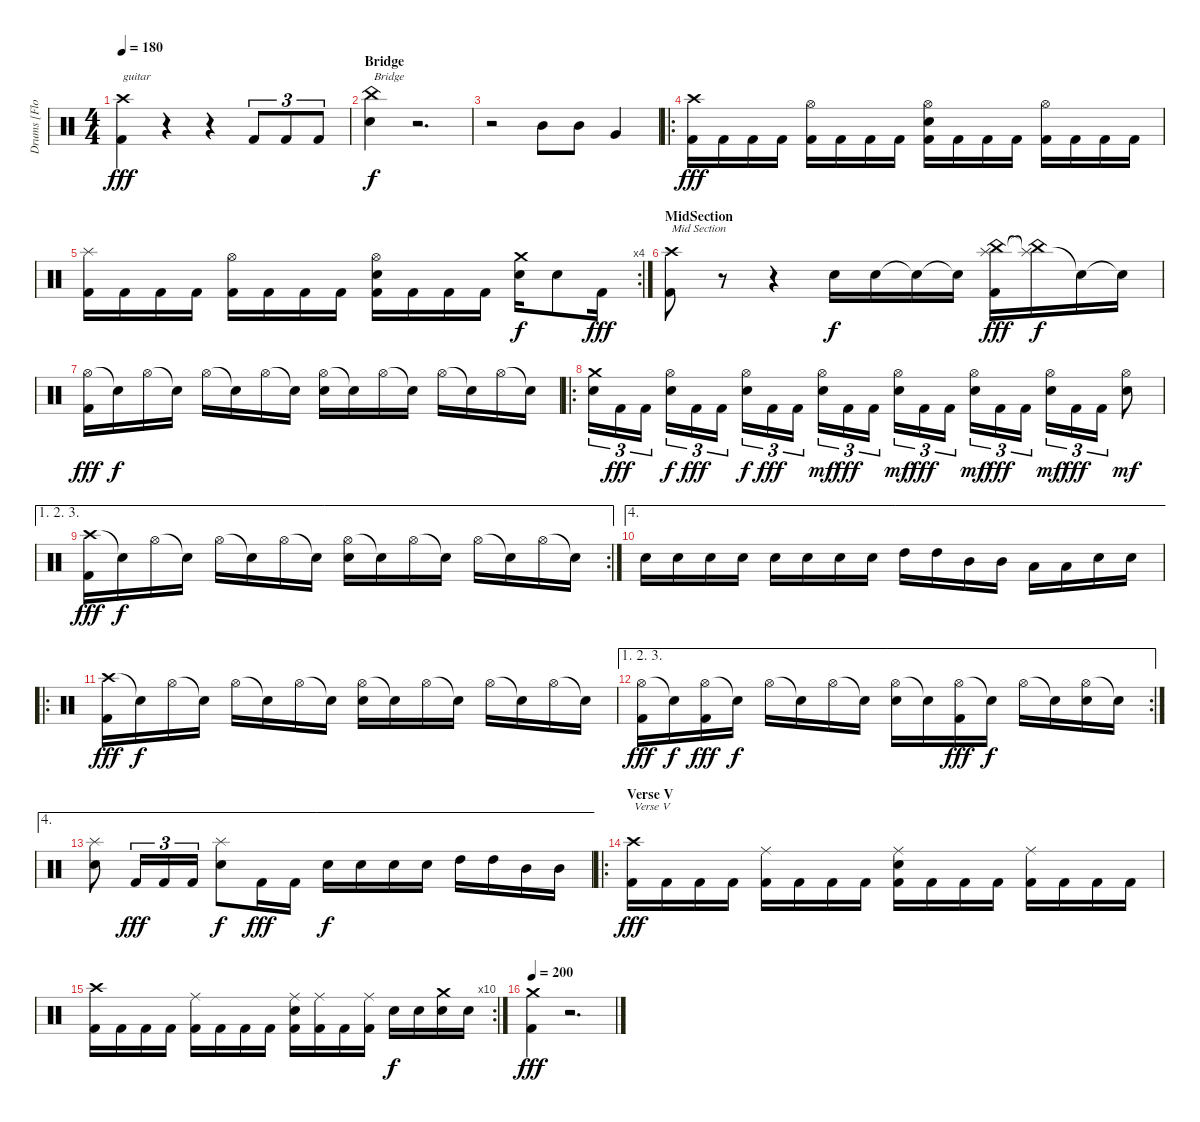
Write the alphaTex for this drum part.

\track ("Drums [Flo Mounier]" "Drums [Flo") {instrument percussion}
\staff {score}
\articulation defaults
\ts (4 4)
\tempo 180
\clef neutral
\ks c
("Crash high (hit)" "Kick (hit) 2").4{txt "guitar" dy fff} r.4 r.4 "Kick (hit) 2".8{tu (3 2)} "Kick (hit) 2".8{tu (3 2)} "Kick (hit) 2".8{tu (3 2)} |
\section ("" "Bridge")
("China (hit)" "Electric Snare (hit)").4{txt "Bridge" dy f} r.2{d volume 0} |
r.2 "Mid Tom (hit)".8{volume 16} "Mid Tom (hit)".8 "Very Low Tom (hit)".4 |
\ro
("Crash high (hit)" "Kick (hit) 2").16{dy fff} "Kick (hit) 2".16 "Kick (hit) 2".16 "Kick (hit) 2".16 ("Hi-Hat (open)" "Kick (hit) 2").16 "Kick (hit) 2".16 "Kick (hit) 2".16 "Kick (hit) 2".16 ("Hi-Hat (open)" "Electric Snare (hit)" "Kick (hit) 2").16 "Kick (hit) 2".16 "Kick (hit) 2".16 "Kick (hit) 2".16 ("Hi-Hat (open)" "Kick (hit) 2").16 "Kick (hit) 2".16 "Kick (hit) 2".16 "Kick (hit) 2".16 |
\rc 4
("Splash (hit)" "Kick (hit) 2").16 "Kick (hit) 2".16 "Kick (hit) 2".16 "Kick (hit) 2".16 ("Hi-Hat (open)" "Kick (hit) 2").16 "Kick (hit) 2".16 "Kick (hit) 2".16 "Kick (hit) 2".16 ("Hi-Hat (open)" "Electric Snare (hit)" "Kick (hit) 2").16 "Kick (hit) 2".16 "Kick (hit) 2".16 "Kick (hit) 2".16 ("Crash medium (hit)" "Electric Snare (hit)").16{dy f} "Electric Snare (hit)".8 "Kick (hit) 2".16{dy fff} |
\section ("" "MidSection")
("Crash high (hit)" "Kick (hit) 2").8{txt "Mid Section"} r.8{volume 0} r.4 "Electric Snare (hit)".16{dy f volume 16} "Electric Snare (hit)".16 "Snare (hit)"{t}.16 "Snare (hit)"{t}.16 ("China (hit)" "Splash (hit)" "Kick (hit) 2").16{dy fff} ("Splash (hit)"{t} "China (hit)"{t}).16{dy f} "Snare (hit)"{t}.16 "Snare (hit)"{t}.16 |
("Hi-Hat (open)" "Kick (hit) 2").16{dy fff} "Snare (hit)"{t}.16{dy f} "Hi-Hat (open)".16 "Snare (hit)"{t}.16 "Hi-Hat (open)".16 "Snare (hit)"{t}.16 "Hi-Hat (open)".16 "Snare (hit)"{t}.16 ("Hi-Hat (open)" "Electric Snare (hit)").16 "Snare (hit)"{t}.16 "Hi-Hat (open)".16 "Snare (hit)"{t}.16 "Hi-Hat (open)".16 "Snare (hit)"{t}.16 "Hi-Hat (open)".16 "Snare (hit)"{t}.16 |
\ro
("Crash medium (hit)" "Electric Snare (hit)").16{tu (3 2)} "Kick (hit) 2".16{tu (3 2) dy fff} "Kick (hit) 2".16{tu (3 2)} ("Hi-Hat (open)" "Electric Snare (hit)").16{tu (3 2) dy f} "Kick (hit) 2".16{tu (3 2) dy fff} "Kick (hit) 2".16{tu (3 2)} ("Hi-Hat (open)" "Electric Snare (hit)").16{tu (3 2) dy f} "Kick (hit) 2".16{tu (3 2) dy fff} "Kick (hit) 2".16{tu (3 2)} ("Hi-Hat (open)" "Electric Snare (hit)").16{tu (3 2) dy mf} "Kick (hit) 2".16{tu (3 2) dy fff} "Kick (hit) 2".16{tu (3 2)} ("Hi-Hat (open)" "Electric Snare (hit)").16{tu (3 2) dy mf} "Kick (hit) 2".16{tu (3 2) dy fff} "Kick (hit) 2".16{tu (3 2)} ("Hi-Hat (open)" "Electric Snare (hit)").16{tu (3 2) dy mf} "Kick (hit) 2".16{tu (3 2) dy fff} "Kick (hit) 2".16{tu (3 2)} ("Hi-Hat (open)" "Electric Snare (hit)").16{tu (3 2) dy mf} "Kick (hit) 2".16{tu (3 2) dy fff} "Kick (hit) 2".16{tu (3 2)} ("Hi-Hat (open)" "Electric Snare (hit)").8{dy mf} |
\ae (1 2 3)
\rc 2
("Crash high (hit)" "Kick (hit) 2").16{dy fff} "Snare (hit)"{t}.16{dy f} "Hi-Hat (open)".16 "Snare (hit)"{t}.16 "Hi-Hat (open)".16 "Snare (hit)"{t}.16 "Hi-Hat (open)".16 "Snare (hit)"{t}.16 ("Hi-Hat (open)" "Electric Snare (hit)").16 "Snare (hit)"{t}.16 "Hi-Hat (open)".16 "Snare (hit)"{t}.16 "Hi-Hat (open)".16 "Snare (hit)"{t}.16 "Hi-Hat (open)".16 "Snare (hit)"{t}.16 |
\ae 4 "Electric Snare (hit)".16 "Electric Snare (hit)".16 "Electric Snare (hit)".16 "Electric Snare (hit)".16 "Electric Snare (hit)".16 "Electric Snare (hit)".16 "Electric Snare (hit)".16 "Electric Snare (hit)".16 "High Tom (hit)".16 "High Tom (hit)".16 "Mid Tom (hit)".16 "Mid Tom (hit)".16 "Low Tom (hit)".16 "Low Tom (hit)".16 "Electric Snare (hit)".16 "Electric Snare (hit)".16
|
\ro
("Crash high (hit)" "Kick (hit) 2").16{dy fff} "Snare (hit)"{t}.16{dy f} "Hi-Hat (open)".16 "Snare (hit)"{t}.16 "Hi-Hat (open)".16 "Snare (hit)"{t}.16 "Hi-Hat (open)".16 "Snare (hit)"{t}.16 ("Hi-Hat (open)" "Electric Snare (hit)").16 "Snare (hit)"{t}.16 "Hi-Hat (open)".16 "Snare (hit)"{t}.16 "Hi-Hat (open)".16 "Snare (hit)"{t}.16 "Hi-Hat (open)".16 "Snare (hit)"{t}.16 |
\ae (1 2 3)
\rc 2
("Hi-Hat (open)" "Kick (hit) 2").16{dy fff} "Snare (hit)"{t}.16{dy f} ("Hi-Hat (open)" "Kick (hit) 2").16{dy fff} "Snare (hit)"{t}.16{dy f} "Hi-Hat (open)".16 "Snare (hit)"{t}.16 "Hi-Hat (open)".16 "Snare (hit)"{t}.16 ("Hi-Hat (open)" "Electric Snare (hit)").16 "Snare (hit)"{t}.16 ("Hi-Hat (open)" "Kick (hit) 2").16{dy fff} "Snare (hit)"{t}.16{dy f} "Hi-Hat (open)".16 "Snare (hit)"{t}.16 ("Hi-Hat (open)" "Electric Snare (hit)").16 "Snare (hit)"{t}.16 |
\ae 4
("Splash (hit)" "Electric Snare (hit)").8 "Kick (hit) 2".16{tu (3 2) dy fff} "Kick (hit) 2".16{tu (3 2)} "Kick (hit) 2".16{tu (3 2)} ("Splash (hit)" "Electric Snare (hit)").8{dy f} "Kick (hit) 2".16{dy fff} "Kick (hit) 2".16 "Electric Snare (hit)".16{dy f} "Electric Snare (hit)".16 "Electric Snare (hit)".16 "Electric Snare (hit)".16 "High Tom (hit)".16 "High Tom (hit)".16 "Mid Tom (hit)".16 "Mid Tom (hit)".16 |
\ro
\section ("" "Verse V")
("Crash high (hit)" "Kick (hit) 2").16{txt "Verse V" dy fff} "Kick (hit) 2".16 "Kick (hit) 2".16 "Kick (hit) 2".16 ("Ride (middle)" "Kick (hit) 2").16 "Kick (hit) 2".16 "Kick (hit) 2".16 "Kick (hit) 2".16 ("Ride (middle)" "Electric Snare (hit)" "Kick (hit) 2").16 "Kick (hit) 2".16 "Kick (hit) 2".16 "Kick (hit) 2".16 ("Ride (middle)" "Kick (hit) 2").16 "Kick (hit) 2".16 "Kick (hit) 2".16 "Kick (hit) 2".16 |
\rc 10
("Crash high (hit)" "Kick (hit) 2").16 "Kick (hit) 2".16 "Kick (hit) 2".16 "Kick (hit) 2".16 ("Ride (middle)" "Kick (hit) 2").16 "Kick (hit) 2".16 "Kick (hit) 2".16 "Kick (hit) 2".16 ("Ride (middle)" "Electric Snare (hit)" "Kick (hit) 2").16 ("Ride (middle)" "Kick (hit) 2").16 "Kick (hit) 2".16 ("Ride (middle)" "Kick (hit) 2").16 "Electric Snare (hit)".16{dy f} "Electric Snare (hit)".16 ("Crash medium (hit)" "Electric Snare (hit)").16 "Electric Snare (hit)".16 |
\tempo 200
("Crash medium (hit)" "Kick (hit) 2").4{dy fff balance 16} r.2{d volume 0 balance 0}
